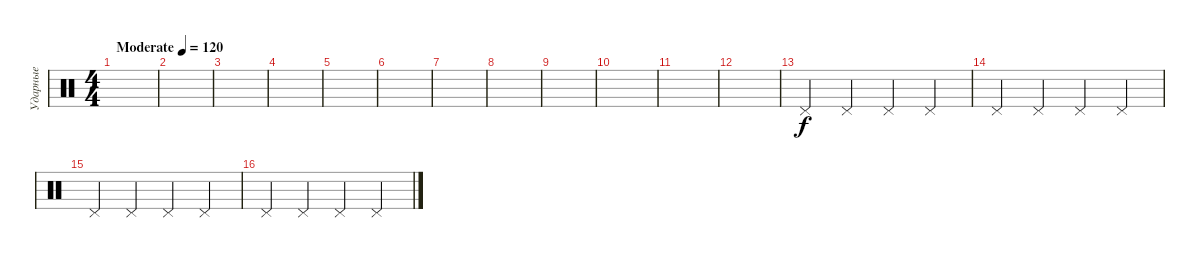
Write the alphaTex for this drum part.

\track ("Ударные" "Ударные") {instrument percussion}
\staff {score}
\articulation defaults
\ts (4 4)
\tempo (120 "Moderate")
\clef neutral
\ks c
|
|
|
|
|
|
|
|
|
|
|
|
"Pedal Hi-Hat (hit)".4 "Pedal Hi-Hat (hit)".4 "Pedal Hi-Hat (hit)".4 "Pedal Hi-Hat (hit)".4 |
"Pedal Hi-Hat (hit)".4 "Pedal Hi-Hat (hit)".4 "Pedal Hi-Hat (hit)".4 "Pedal Hi-Hat (hit)".4 |
"Pedal Hi-Hat (hit)".4 "Pedal Hi-Hat (hit)".4 "Pedal Hi-Hat (hit)".4 "Pedal Hi-Hat (hit)".4 |
"Pedal Hi-Hat (hit)".4 "Pedal Hi-Hat (hit)".4 "Pedal Hi-Hat (hit)".4 "Pedal Hi-Hat (hit)".4
